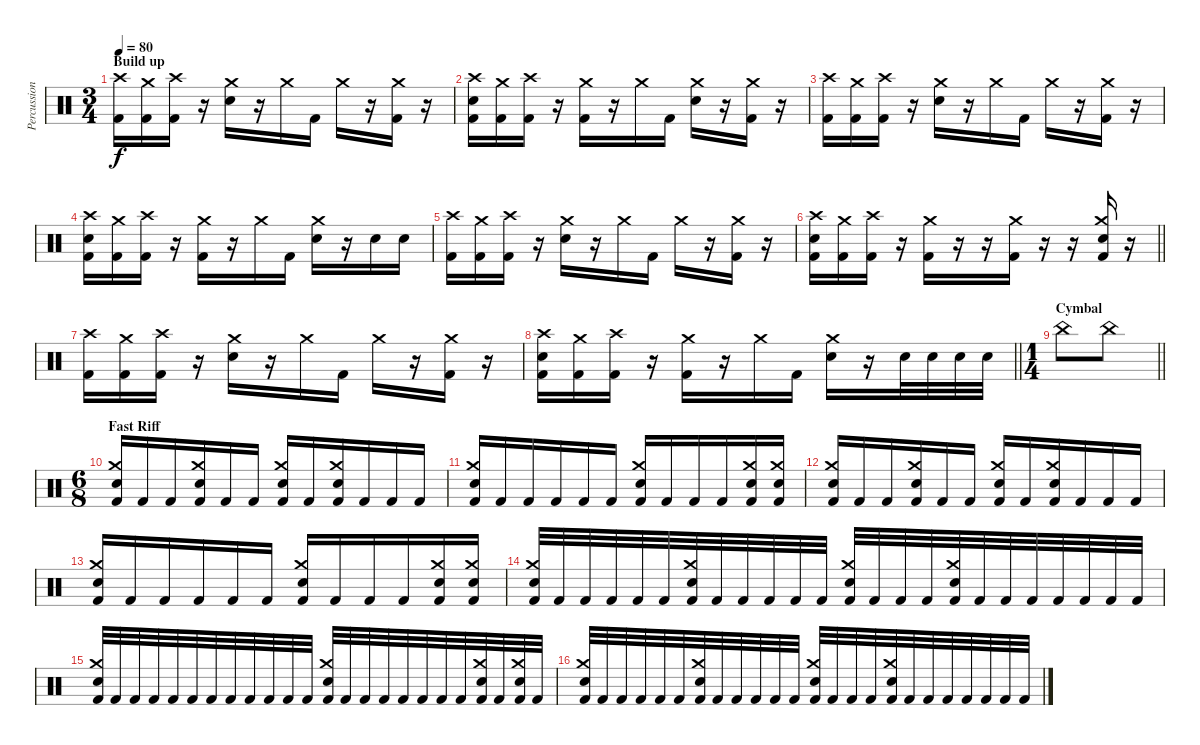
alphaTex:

\track ("Percussion" "Percussion") {instrument percussion}
\staff {score}
\articulation defaults
\ts (3 4)
\section ("" "Build up")
\tempo 80
\clef neutral
\ks c
("Crash high (hit)" "Kick (hit) 2").16{dy f} ("Crash medium (hit)" "Kick (hit) 2").16 ("Crash high (hit)" "Kick (hit) 2").16 r.16 ("Crash medium (hit)" "Snare (hit) 2").16 r.16 "Crash medium (hit)".16 "Kick (hit) 2".16 "Crash medium (hit)".16 r.16 ("Crash medium (hit)" "Kick (hit) 2").16 r.16 |
("Crash high (hit)" "Snare (hit) 2" "Kick (hit) 2").16 ("Crash medium (hit)" "Kick (hit) 2").16 ("Crash high (hit)" "Kick (hit) 2").16 r.16 ("Crash medium (hit)" "Kick (hit) 2").16 r.16 "Crash medium (hit)".16 "Kick (hit) 2".16 ("Crash medium (hit)" "Snare (hit) 2").16 r.16 ("Crash medium (hit)" "Kick (hit) 2").16 r.16 |
("Crash high (hit)" "Kick (hit) 2").16 ("Crash medium (hit)" "Kick (hit) 2").16 ("Crash high (hit)" "Kick (hit) 2").16 r.16 ("Crash medium (hit)" "Snare (hit) 2").16 r.16 "Crash medium (hit)".16 "Kick (hit) 2".16 "Crash medium (hit)".16 r.16 ("Crash medium (hit)" "Kick (hit) 2").16 r.16 |
("Crash high (hit)" "Snare (hit) 2" "Kick (hit) 2").16 ("Crash medium (hit)" "Kick (hit) 2").16 ("Crash high (hit)" "Kick (hit) 2").16 r.16 ("Crash medium (hit)" "Kick (hit) 2").16 r.16 "Crash medium (hit)".16 "Kick (hit) 2".16 ("Crash medium (hit)" "Snare (hit) 2").16 r.16 "Snare (hit) 2".16 "Snare (hit) 2".16 |
("Crash high (hit)" "Kick (hit) 2").16 ("Crash medium (hit)" "Kick (hit) 2").16 ("Crash high (hit)" "Kick (hit) 2").16 r.16 ("Crash medium (hit)" "Snare (hit) 2").16 r.16 "Crash medium (hit)".16 "Kick (hit) 2".16 "Crash medium (hit)".16 r.16 ("Crash medium (hit)" "Kick (hit) 2").16 r.16 |
\barLineRight lightlight
("Crash high (hit)" "Snare (hit) 2" "Kick (hit) 2").16 ("Crash medium (hit)" "Kick (hit) 2").16 ("Crash high (hit)" "Kick (hit) 2").16 r.16 ("Crash medium (hit)" "Kick (hit) 2").16 r.16 r.16 ("Crash medium (hit)" "Kick (hit) 2").16 r.16 r.16 ("Crash medium (hit)" "Snare (hit) 2" "Kick (hit) 2").16 r.16 |
("Crash high (hit)" "Kick (hit) 2").16 ("Crash medium (hit)" "Kick (hit) 2").16 ("Crash high (hit)" "Kick (hit) 2").16 r.16 ("Crash medium (hit)" "Snare (hit) 2").16 r.16 "Crash medium (hit)".16 "Kick (hit) 2".16 "Crash medium (hit)".16 r.16 ("Crash medium (hit)" "Kick (hit) 2").16 r.16 |
\barLineRight lightlight
("Crash high (hit)" "Snare (hit) 2" "Kick (hit) 2").16 ("Crash medium (hit)" "Kick (hit) 2").16 ("Crash high (hit)" "Kick (hit) 2").16 r.16 ("Crash medium (hit)" "Kick (hit) 2").16 r.16 "Crash medium (hit)".16 "Kick (hit) 2".16 ("Crash medium (hit)" "Snare (hit) 2").16 r.16 "Snare (hit) 2".32 "Snare (hit) 2".32 "Snare (hit) 2".32 "Snare (hit) 2".32 |
\ts (1 4)
\section ("" "Cymbal")
\barLineRight lightlight "China (hit)".8 "China (hit)".8
|
\ts (6 8)
\section ("" "Fast Riff")
("Crash medium (hit)" "Snare (hit) 2" "Kick (hit) 2").16 "Kick (hit) 2".16 "Kick (hit) 2".16 ("Crash medium (hit)" "Snare (hit) 2" "Kick (hit) 2").16 "Kick (hit) 2".16 "Kick (hit) 2".16 ("Crash medium (hit)" "Snare (hit) 2" "Kick (hit) 2").16 "Kick (hit) 2".16 ("Crash medium (hit)" "Snare (hit) 2" "Kick (hit) 2").16 "Kick (hit) 2".16 "Kick (hit) 2".16 "Kick (hit) 2".16 |
("Crash medium (hit)" "Snare (hit) 2" "Kick (hit) 2").16 "Kick (hit) 2".16 "Kick (hit) 2".16 "Kick (hit) 2".16 "Kick (hit) 2".16 "Kick (hit) 2".16 ("Crash medium (hit)" "Snare (hit) 2" "Kick (hit) 2").16 "Kick (hit) 2".16 "Kick (hit) 2".16 "Kick (hit) 2".16 ("Crash medium (hit)" "Snare (hit) 2" "Kick (hit) 2").16 ("Crash medium (hit)" "Snare (hit) 2" "Kick (hit) 2").16 |
("Crash medium (hit)" "Snare (hit) 2" "Kick (hit) 2").16 "Kick (hit) 2".16 "Kick (hit) 2".16 ("Crash medium (hit)" "Snare (hit) 2" "Kick (hit) 2").16 "Kick (hit) 2".16 "Kick (hit) 2".16 ("Crash medium (hit)" "Snare (hit) 2" "Kick (hit) 2").16 "Kick (hit) 2".16 ("Crash medium (hit)" "Snare (hit) 2" "Kick (hit) 2").16 "Kick (hit) 2".16 "Kick (hit) 2".16 "Kick (hit) 2".16 |
("Crash medium (hit)" "Snare (hit) 2" "Kick (hit) 2").16 "Kick (hit) 2".16 "Kick (hit) 2".16 "Kick (hit) 2".16 "Kick (hit) 2".16 "Kick (hit) 2".16 ("Crash medium (hit)" "Snare (hit) 2" "Kick (hit) 2").16 "Kick (hit) 2".16 "Kick (hit) 2".16 "Kick (hit) 2".16 ("Crash medium (hit)" "Snare (hit) 2" "Kick (hit) 2").16 ("Crash medium (hit)" "Snare (hit) 2" "Kick (hit) 2").16 |
("Crash medium (hit)" "Snare (hit) 2" "Kick (hit) 2").32 "Kick (hit) 2".32 "Kick (hit) 2".32 "Kick (hit) 2".32 "Kick (hit) 2".32 "Kick (hit) 2".32 ("Crash medium (hit)" "Snare (hit) 2" "Kick (hit) 2").32 "Kick (hit) 2".32 "Kick (hit) 2".32 "Kick (hit) 2".32 "Kick (hit) 2".32 "Kick (hit) 2".32 ("Crash medium (hit)" "Snare (hit) 2" "Kick (hit) 2").32 "Kick (hit) 2".32 "Kick (hit) 2".32 "Kick (hit) 2".32 ("Crash medium (hit)" "Snare (hit) 2" "Kick (hit) 2").32 "Kick (hit) 2".32 "Kick (hit) 2".32 "Kick (hit) 2".32 "Kick (hit) 2".32 "Kick (hit) 2".32 "Kick (hit) 2".32 "Kick (hit) 2".32 |
("Crash medium (hit)" "Snare (hit) 2" "Kick (hit) 2").32 "Kick (hit) 2".32 "Kick (hit) 2".32 "Kick (hit) 2".32 "Kick (hit) 2".32 "Kick (hit) 2".32 "Kick (hit) 2".32 "Kick (hit) 2".32 "Kick (hit) 2".32 "Kick (hit) 2".32 "Kick (hit) 2".32 "Kick (hit) 2".32 ("Crash medium (hit)" "Snare (hit) 2" "Kick (hit) 2").32 "Kick (hit) 2".32 "Kick (hit) 2".32 "Kick (hit) 2".32 "Kick (hit) 2".32 "Kick (hit) 2".32 "Kick (hit) 2".32 "Kick (hit) 2".32 ("Crash medium (hit)" "Snare (hit) 2" "Kick (hit) 2").32 "Kick (hit) 2".32 ("Crash medium (hit)" "Snare (hit) 2" "Kick (hit) 2").32 "Kick (hit) 2".32 |
("Crash medium (hit)" "Snare (hit) 2" "Kick (hit) 2").32 "Kick (hit) 2".32 "Kick (hit) 2".32 "Kick (hit) 2".32 "Kick (hit) 2".32 "Kick (hit) 2".32 ("Crash medium (hit)" "Snare (hit) 2" "Kick (hit) 2").32 "Kick (hit) 2".32 "Kick (hit) 2".32 "Kick (hit) 2".32 "Kick (hit) 2".32 "Kick (hit) 2".32 ("Crash medium (hit)" "Snare (hit) 2" "Kick (hit) 2").32 "Kick (hit) 2".32 "Kick (hit) 2".32 "Kick (hit) 2".32 ("Crash medium (hit)" "Snare (hit) 2" "Kick (hit) 2").32 "Kick (hit) 2".32 "Kick (hit) 2".32 "Kick (hit) 2".32 "Kick (hit) 2".32 "Kick (hit) 2".32 "Kick (hit) 2".32 "Kick (hit) 2".32
